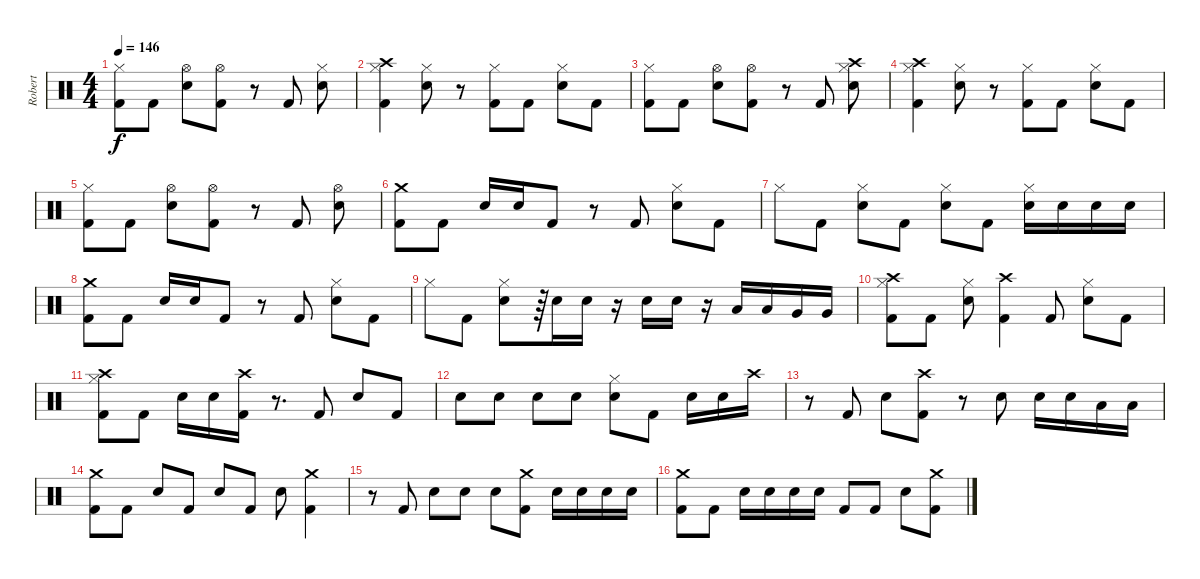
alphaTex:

\track ("Robert" "Robert") {instrument percussion}
\staff {score}
\articulation defaults
\ts (4 4)
\tempo 146
\clef neutral
\ks c
("Hi-Hat (closed)" "Kick (hit) 2").8{dy f} "Kick (hit) 2".8 ("Hi-Hat (open)" "Electric Snare (hit)").8 ("Hi-Hat (open)" "Kick (hit) 2").8 r.8 "Kick (hit) 2".8 ("Hi-Hat (closed)" "Electric Snare (hit)").8 |
("Crash high (hit)" "Hi-Hat (closed)" "Kick (hit) 2").4 ("Hi-Hat (closed)" "Electric Snare (hit)").8 r.8 ("Hi-Hat (closed)" "Kick (hit) 2").8 "Kick (hit) 2".8 ("Hi-Hat (closed)" "Electric Snare (hit)").8 "Kick (hit) 2".8 |
("Hi-Hat (closed)" "Kick (hit) 2").8 "Kick (hit) 2".8 ("Hi-Hat (open)" "Electric Snare (hit)").8 ("Hi-Hat (open)" "Kick (hit) 2").8 r.8 "Kick (hit) 2".8 ("Crash high (hit)" "Hi-Hat (closed)" "Electric Snare (hit)").8 |
("Crash high (hit)" "Hi-Hat (closed)" "Kick (hit) 2").4 ("Hi-Hat (closed)" "Electric Snare (hit)").8 r.8 ("Hi-Hat (closed)" "Kick (hit) 2").8 "Kick (hit) 2".8 ("Hi-Hat (closed)" "Electric Snare (hit)").8 "Kick (hit) 2".8 |
("Hi-Hat (closed)" "Kick (hit) 2").8 "Kick (hit) 2".8 ("Hi-Hat (open)" "Electric Snare (hit)").8 ("Hi-Hat (open)" "Kick (hit) 2").8 r.8 "Kick (hit) 2".8 ("Hi-Hat (open)" "Electric Snare (hit)").8 |
("Crash medium (hit)" "Kick (hit) 2").8 "Kick (hit) 2".8 "Electric Snare (hit)".16 "Electric Snare (hit)".16 "Kick (hit) 2".8 r.8 "Kick (hit) 2".8 ("Hi-Hat (closed)" "Electric Snare (hit)").8 "Kick (hit) 2".8 |
"Hi-Hat (closed)".8 "Kick (hit) 2".8 ("Hi-Hat (closed)" "Electric Snare (hit)").8 "Kick (hit) 2".8 ("Hi-Hat (closed)" "Electric Snare (hit)").8 "Kick (hit) 2".8 ("Hi-Hat (closed)" "Electric Snare (hit)").16 "Electric Snare (hit)".16 "Electric Snare (hit)".16 "Electric Snare (hit)".16 |
("Crash medium (hit)" "Kick (hit) 2").8 "Kick (hit) 2".8 "Electric Snare (hit)".16 "Electric Snare (hit)".16 "Kick (hit) 2".8 r.8 "Kick (hit) 2".8 ("Hi-Hat (closed)" "Electric Snare (hit)").8 "Kick (hit) 2".8 |
"Hi-Hat (closed)".8 "Kick (hit) 2".8 ("Hi-Hat (closed)" "Electric Snare (hit)").8 r.64 "Electric Snare (hit)".16 "Electric Snare (hit)".16 r.16 "Electric Snare (hit)".16 "Electric Snare (hit)".16 r.16 "Low Tom (hit)".16 "Low Tom (hit)".16 "Very Low Tom (hit)".16 "Very Low Tom (hit)".16 |
("Crash high (hit)" "Hi-Hat (closed)" "Kick (hit) 2").8 "Kick (hit) 2".8 ("Hi-Hat (closed)" "Electric Snare (hit)").8 ("Crash high (hit)" "Kick (hit) 2").4 "Kick (hit) 2".8 ("Hi-Hat (closed)" "Electric Snare (hit)").8 "Kick (hit) 2".8 |
("Crash high (hit)" "Hi-Hat (closed)" "Kick (hit) 2").8 "Kick (hit) 2".8 "Electric Snare (hit)".16 "Electric Snare (hit)".16 ("Crash high (hit)" "Kick (hit) 2").16 r.8{d} "Kick (hit) 2".8 "Electric Snare (hit)".8 "Kick (hit) 2".8 |
"Electric Snare (hit)".8 "Electric Snare (hit)".8 "Electric Snare (hit)".8 "Electric Snare (hit)".8 ("Hi-Hat (closed)" "Electric Snare (hit)").8 "Kick (hit) 2".8 "Electric Snare (hit)".16 "Electric Snare (hit)".16 "Crash high (hit)".16 |
r.8 "Kick (hit) 2".8 "Electric Snare (hit)".8 ("Crash high (hit)" "Kick (hit) 2").8 r.8 "Electric Snare (hit)".8 "Electric Snare (hit)".16 "Electric Snare (hit)".16 "Low Tom (hit)".16 "Low Tom (hit)".16 |
("Crash medium (hit)" "Kick (hit) 2").8 "Kick (hit) 2".8 "Electric Snare (hit)".8 "Kick (hit) 2".8 "Electric Snare (hit)".8 "Kick (hit) 2".8 "Electric Snare (hit)".8 ("Crash medium (hit)" "Kick (hit) 2").4 |
r.8 "Kick (hit) 2".8 "Electric Snare (hit)".8 "Electric Snare (hit)".8 "Electric Snare (hit)".8 ("Crash medium (hit)" "Kick (hit) 2").8 "Electric Snare (hit)".16 "Electric Snare (hit)".16 "Electric Snare (hit)".16 "Electric Snare (hit)".16 |
("Crash medium (hit)" "Kick (hit) 2").8 "Kick (hit) 2".8 "Electric Snare (hit)".16 "Electric Snare (hit)".16 "Electric Snare (hit)".16 "Electric Snare (hit)".16 "Kick (hit) 2".8 "Kick (hit) 2".8 "Electric Snare (hit)".8 ("Crash medium (hit)" "Kick (hit) 2").8
